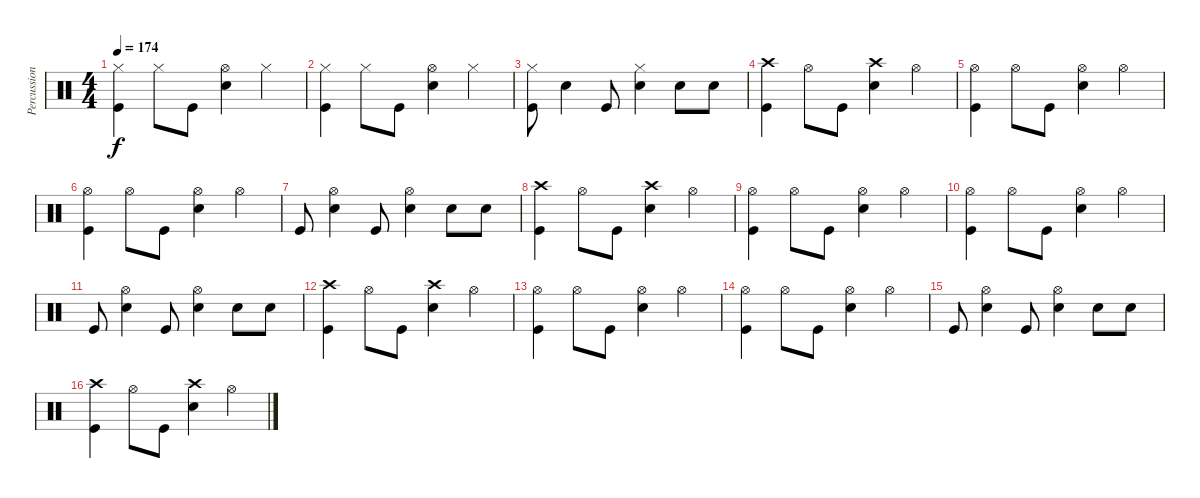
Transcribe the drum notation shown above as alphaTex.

\track ("Percussion" "Percussion") {instrument percussion}
\staff {score}
\articulation defaults
\ts (4 4)
\tempo 174
\clef neutral
\ks c
("Hi-Hat (closed)" "Kick (hit)").4{dy f} "Hi-Hat (closed)".8 "Kick (hit)".8 ("Hi-Hat (open)" "Electric Snare (hit)").4 "Hi-Hat (closed)".4 |
("Hi-Hat (closed)" "Kick (hit)").4 "Hi-Hat (closed)".8 "Kick (hit)".8 ("Hi-Hat (open)" "Electric Snare (hit)").4 "Hi-Hat (closed)".4 |
("Hi-Hat (closed)" "Kick (hit)").8 "Electric Snare (hit)".4 "Kick (hit)".8 ("Hi-Hat (closed)" "Electric Snare (hit)").4 "Electric Snare (hit)".8 "Electric Snare (hit)".8 |
("Crash high (hit)" "Kick (hit)").4 "Hi-Hat (open)".8 "Kick (hit)".8 ("Crash high (hit)" "Electric Snare (hit)").4 "Hi-Hat (open)".4 |
("Hi-Hat (open)" "Kick (hit)").4 "Hi-Hat (open)".8 "Kick (hit)".8 ("Hi-Hat (open)" "Electric Snare (hit)").4 "Hi-Hat (open)".4 |
("Hi-Hat (open)" "Kick (hit)").4 "Hi-Hat (open)".8 "Kick (hit)".8 ("Hi-Hat (open)" "Electric Snare (hit)").4 "Hi-Hat (open)".4 |
"Kick (hit)".8 ("Hi-Hat (open)" "Electric Snare (hit)").4 "Kick (hit)".8 ("Hi-Hat (open)" "Electric Snare (hit)").4 "Electric Snare (hit)".8 "Electric Snare (hit)".8 |
("Crash high (hit)" "Kick (hit)").4 "Hi-Hat (open)".8 "Kick (hit)".8 ("Crash high (hit)" "Electric Snare (hit)").4 "Hi-Hat (open)".4 |
("Hi-Hat (open)" "Kick (hit)").4 "Hi-Hat (open)".8 "Kick (hit)".8 ("Hi-Hat (open)" "Electric Snare (hit)").4 "Hi-Hat (open)".4 |
("Hi-Hat (open)" "Kick (hit)").4 "Hi-Hat (open)".8 "Kick (hit)".8 ("Hi-Hat (open)" "Electric Snare (hit)").4 "Hi-Hat (open)".4 |
"Kick (hit)".8 ("Hi-Hat (open)" "Electric Snare (hit)").4 "Kick (hit)".8 ("Hi-Hat (open)" "Electric Snare (hit)").4 "Electric Snare (hit)".8 "Electric Snare (hit)".8 |
("Crash high (hit)" "Kick (hit)").4 "Hi-Hat (open)".8 "Kick (hit)".8 ("Crash high (hit)" "Electric Snare (hit)").4 "Hi-Hat (open)".4 |
("Hi-Hat (open)" "Kick (hit)").4 "Hi-Hat (open)".8 "Kick (hit)".8 ("Hi-Hat (open)" "Electric Snare (hit)").4 "Hi-Hat (open)".4 |
("Hi-Hat (open)" "Kick (hit)").4 "Hi-Hat (open)".8 "Kick (hit)".8 ("Hi-Hat (open)" "Electric Snare (hit)").4 "Hi-Hat (open)".4 |
"Kick (hit)".8 ("Hi-Hat (open)" "Electric Snare (hit)").4 "Kick (hit)".8 ("Hi-Hat (open)" "Electric Snare (hit)").4 "Electric Snare (hit)".8 "Electric Snare (hit)".8 |
("Crash high (hit)" "Kick (hit)").4 "Hi-Hat (open)".8 "Kick (hit)".8 ("Crash high (hit)" "Electric Snare (hit)").4 "Hi-Hat (open)".4
